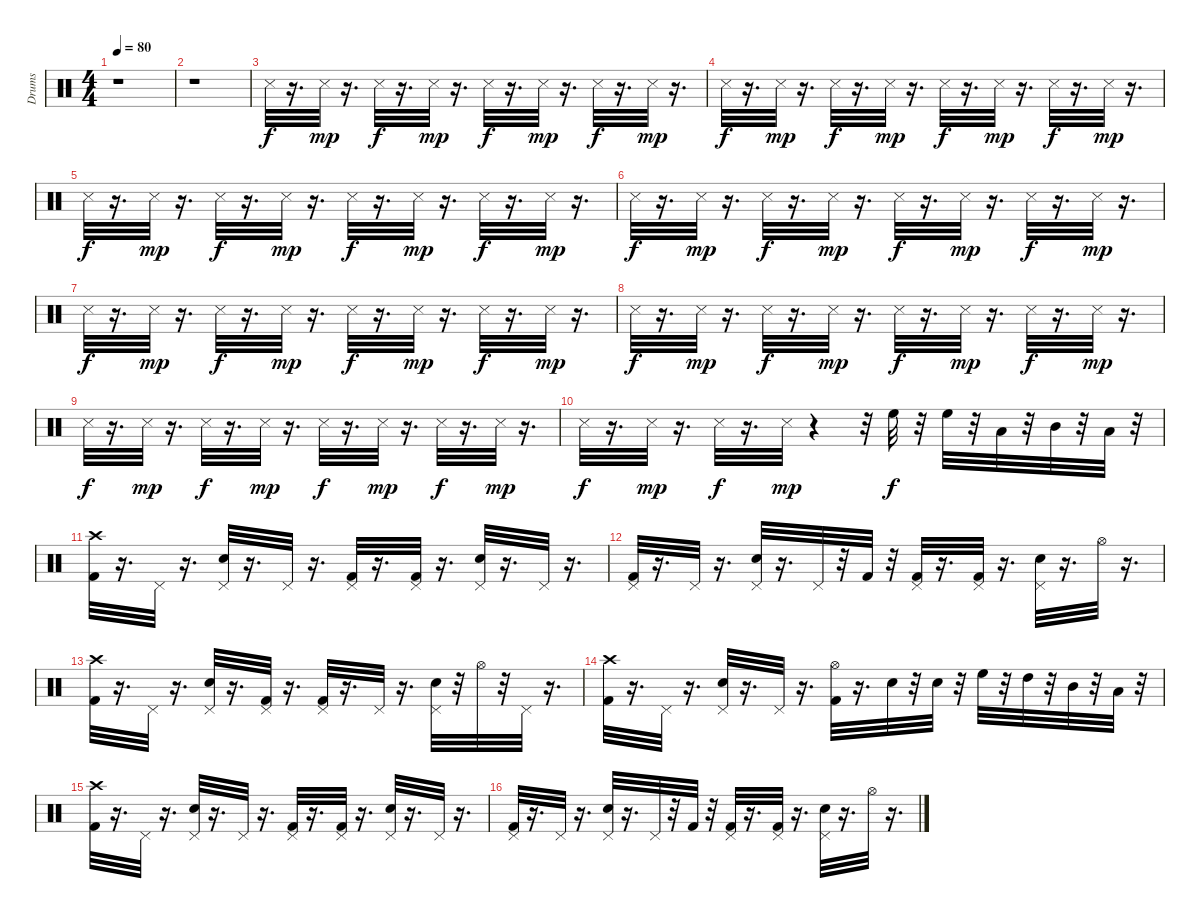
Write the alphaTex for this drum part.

\track ("Drums" "Drums") {instrument percussion}
\staff {score}
\articulation defaults
\ts (4 4)
\tempo 80
\clef neutral
\ks c
r.1{dy f} |
r.1 |
"Snare (side stick) 3".32 r.16{d} "Snare (side stick) 3".32{dy mp} r.16{d} "Snare (side stick) 3".32{dy f} r.16{d} "Snare (side stick) 3".32{dy mp} r.16{d} "Snare (side stick) 3".32{dy f} r.16{d} "Snare (side stick) 3".32{dy mp} r.16{d} "Snare (side stick) 3".32{dy f} r.16{d} "Snare (side stick) 3".32{dy mp} r.16{d} |
"Snare (side stick) 3".32{dy f} r.16{d} "Snare (side stick) 3".32{dy mp} r.16{d} "Snare (side stick) 3".32{dy f} r.16{d} "Snare (side stick) 3".32{dy mp} r.16{d} "Snare (side stick) 3".32{dy f} r.16{d} "Snare (side stick) 3".32{dy mp} r.16{d} "Snare (side stick) 3".32{dy f} r.16{d} "Snare (side stick) 3".32{dy mp} r.16{d} |
"Snare (side stick) 3".32{dy f} r.16{d} "Snare (side stick) 3".32{dy mp} r.16{d} "Snare (side stick) 3".32{dy f} r.16{d} "Snare (side stick) 3".32{dy mp} r.16{d} "Snare (side stick) 3".32{dy f} r.16{d} "Snare (side stick) 3".32{dy mp} r.16{d} "Snare (side stick) 3".32{dy f} r.16{d} "Snare (side stick) 3".32{dy mp} r.16{d} |
"Snare (side stick) 3".32{dy f} r.16{d} "Snare (side stick) 3".32{dy mp} r.16{d} "Snare (side stick) 3".32{dy f} r.16{d} "Snare (side stick) 3".32{dy mp} r.16{d} "Snare (side stick) 3".32{dy f} r.16{d} "Snare (side stick) 3".32{dy mp} r.16{d} "Snare (side stick) 3".32{dy f} r.16{d} "Snare (side stick) 3".32{dy mp} r.16{d} |
"Snare (side stick) 3".32{dy f} r.16{d} "Snare (side stick) 3".32{dy mp} r.16{d} "Snare (side stick) 3".32{dy f} r.16{d} "Snare (side stick) 3".32{dy mp} r.16{d} "Snare (side stick) 3".32{dy f} r.16{d} "Snare (side stick) 3".32{dy mp} r.16{d} "Snare (side stick) 3".32{dy f} r.16{d} "Snare (side stick) 3".32{dy mp} r.16{d} |
"Snare (side stick) 3".32{dy f} r.16{d} "Snare (side stick) 3".32{dy mp} r.16{d} "Snare (side stick) 3".32{dy f} r.16{d} "Snare (side stick) 3".32{dy mp} r.16{d} "Snare (side stick) 3".32{dy f} r.16{d} "Snare (side stick) 3".32{dy mp} r.16{d} "Snare (side stick) 3".32{dy f} r.16{d} "Snare (side stick) 3".32{dy mp} r.16{d} |
"Snare (side stick) 3".32{dy f} r.16{d} "Snare (side stick) 3".32{dy mp} r.16{d} "Snare (side stick) 3".32{dy f} r.16{d} "Snare (side stick) 3".32{dy mp} r.16{d} "Snare (side stick) 3".32{dy f} r.16{d} "Snare (side stick) 3".32{dy mp} r.16{d} "Snare (side stick) 3".32{dy f} r.16{d} "Snare (side stick) 3".32{dy mp} r.16{d} |
"Snare (side stick) 3".32{dy f} r.16{d} "Snare (side stick) 3".32{dy mp} r.16{d} "Snare (side stick) 3".32{dy f} r.16{d} "Snare (side stick) 3".32{dy mp} r.4 r.32 "High Floor Tom (hit)".32{dy f} r.32 "High Floor Tom (hit)".32 r.32 "Low Tom (hit)".32 r.32 "Mid Tom (hit)".32 r.32 "Low Tom (hit)".32 r.32 |
("Crash high (hit)" "Kick (hit) 2").32 r.16{d} "Pedal Hi-Hat (hit)".32 r.16{d} ("Pedal Hi-Hat (hit)" "Snare (hit) 2").32 r.16{d} "Pedal Hi-Hat (hit)".32 r.16{d} ("Pedal Hi-Hat (hit)" "Kick (hit) 2").32 r.16{d} ("Pedal Hi-Hat (hit)" "Kick (hit) 2").32 r.16{d} ("Pedal Hi-Hat (hit)" "Snare (hit) 2").32 r.16{d} "Pedal Hi-Hat (hit)".32 r.16{d} |
("Pedal Hi-Hat (hit)" "Kick (hit) 2").32 r.16{d} "Pedal Hi-Hat (hit)".32 r.16{d} ("Pedal Hi-Hat (hit)" "Snare (hit) 2").32 r.16{d} "Pedal Hi-Hat (hit)".32 r.32 "Kick (hit) 2".32 r.32 ("Pedal Hi-Hat (hit)" "Kick (hit) 2").32 r.16{d} ("Pedal Hi-Hat (hit)" "Kick (hit) 2").32 r.16{d} ("Pedal Hi-Hat (hit)" "Snare (hit) 2").32 r.16{d} "Hi-Hat (open)".32 r.16{d} |
("Crash high (hit)" "Kick (hit) 2").32 r.16{d} "Pedal Hi-Hat (hit)".32 r.16{d} ("Pedal Hi-Hat (hit)" "Snare (hit) 2").32 r.16{d} ("Pedal Hi-Hat (hit)" "Kick (hit) 2").32 r.16{d} ("Pedal Hi-Hat (hit)" "Kick (hit) 2").32 r.16{d} "Pedal Hi-Hat (hit)".32 r.16{d} ("Pedal Hi-Hat (hit)" "Snare (hit) 2").32 r.32 "Hi-Hat (open)".32 r.32 "Pedal Hi-Hat (hit)".32 r.16{d} |
("Crash high (hit)" "Kick (hit) 2").32 r.16{d} "Pedal Hi-Hat (hit)".32 r.16{d} ("Pedal Hi-Hat (hit)" "Snare (hit) 2").32 r.16{d} "Pedal Hi-Hat (hit)".32 r.16{d} ("Hi-Hat (open)" "Kick (hit) 2").32 r.16{d} "Snare (hit) 2".32 r.32 "Snare (hit) 2".32 r.32 "High Floor Tom (hit)".32 r.32 "High Tom (hit)".32 r.32 "Mid Tom (hit)".32 r.32 "Low Tom (hit)".32 r.32 |
("Crash high (hit)" "Kick (hit) 2").32 r.16{d} "Pedal Hi-Hat (hit)".32 r.16{d} ("Pedal Hi-Hat (hit)" "Snare (hit) 2").32 r.16{d} "Pedal Hi-Hat (hit)".32 r.16{d} ("Pedal Hi-Hat (hit)" "Kick (hit) 2").32 r.16{d} ("Pedal Hi-Hat (hit)" "Kick (hit) 2").32 r.16{d} ("Pedal Hi-Hat (hit)" "Snare (hit) 2").32 r.16{d} "Pedal Hi-Hat (hit)".32 r.16{d} |
("Pedal Hi-Hat (hit)" "Kick (hit) 2").32 r.16{d} "Pedal Hi-Hat (hit)".32 r.16{d} ("Pedal Hi-Hat (hit)" "Snare (hit) 2").32 r.16{d} "Pedal Hi-Hat (hit)".32 r.32 "Kick (hit) 2".32 r.32 ("Pedal Hi-Hat (hit)" "Kick (hit) 2").32 r.16{d} ("Pedal Hi-Hat (hit)" "Kick (hit) 2").32 r.16{d} ("Pedal Hi-Hat (hit)" "Snare (hit) 2").32 r.16{d} "Hi-Hat (open)".32 r.16{d}
